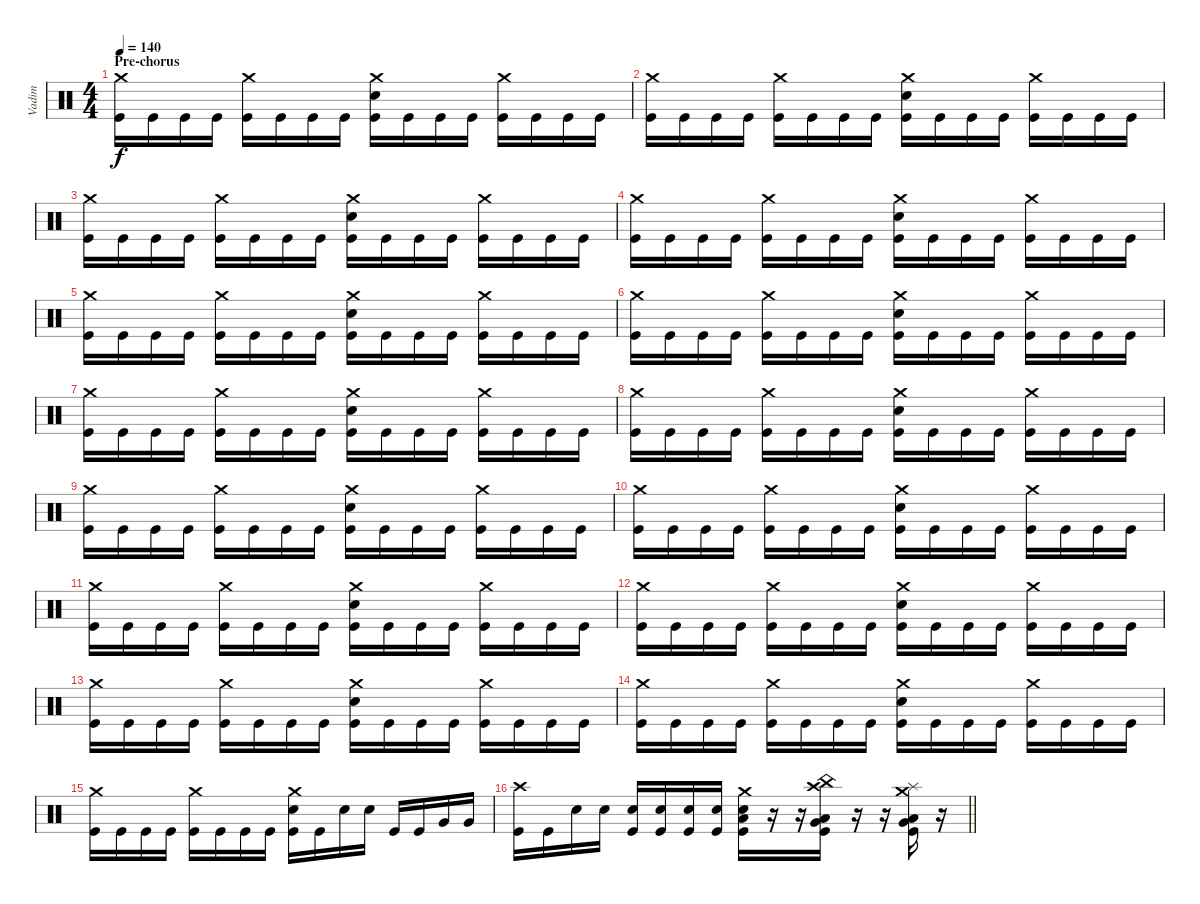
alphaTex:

\track ("Vadim" "Vadim") {instrument percussion}
\staff {score}
\articulation defaults
\ts (4 4)
\section ("" "Pre-chorus")
\tempo 140
\clef neutral
\ks c
("Crash medium (hit)" "Kick (hit)").16{dy f} "Kick (hit)".16 "Kick (hit)".16 "Kick (hit)".16 ("Crash medium (hit)" "Kick (hit)").16 "Kick (hit)".16 "Kick (hit)".16 "Kick (hit)".16 ("Crash medium (hit)" "Electric Snare (hit)" "Kick (hit)").16 "Kick (hit)".16 "Kick (hit)".16 "Kick (hit)".16 ("Crash medium (hit)" "Kick (hit)").16 "Kick (hit)".16 "Kick (hit)".16 "Kick (hit)".16 |
("Crash medium (hit)" "Kick (hit)").16 "Kick (hit)".16 "Kick (hit)".16 "Kick (hit)".16 ("Crash medium (hit)" "Kick (hit)").16 "Kick (hit)".16 "Kick (hit)".16 "Kick (hit)".16 ("Crash medium (hit)" "Electric Snare (hit)" "Kick (hit)").16 "Kick (hit)".16 "Kick (hit)".16 "Kick (hit)".16 ("Crash medium (hit)" "Kick (hit)").16 "Kick (hit)".16 "Kick (hit)".16 "Kick (hit)".16 |
("Crash medium (hit)" "Kick (hit)").16 "Kick (hit)".16 "Kick (hit)".16 "Kick (hit)".16 ("Crash medium (hit)" "Kick (hit)").16 "Kick (hit)".16 "Kick (hit)".16 "Kick (hit)".16 ("Crash medium (hit)" "Electric Snare (hit)" "Kick (hit)").16 "Kick (hit)".16 "Kick (hit)".16 "Kick (hit)".16 ("Crash medium (hit)" "Kick (hit)").16 "Kick (hit)".16 "Kick (hit)".16 "Kick (hit)".16 |
("Crash medium (hit)" "Kick (hit)").16 "Kick (hit)".16 "Kick (hit)".16 "Kick (hit)".16 ("Crash medium (hit)" "Kick (hit)").16 "Kick (hit)".16 "Kick (hit)".16 "Kick (hit)".16 ("Crash medium (hit)" "Electric Snare (hit)" "Kick (hit)").16 "Kick (hit)".16 "Kick (hit)".16 "Kick (hit)".16 ("Crash medium (hit)" "Kick (hit)").16 "Kick (hit)".16 "Kick (hit)".16 "Kick (hit)".16 |
("Crash medium (hit)" "Kick (hit)").16 "Kick (hit)".16 "Kick (hit)".16 "Kick (hit)".16 ("Crash medium (hit)" "Kick (hit)").16 "Kick (hit)".16 "Kick (hit)".16 "Kick (hit)".16 ("Crash medium (hit)" "Electric Snare (hit)" "Kick (hit)").16 "Kick (hit)".16 "Kick (hit)".16 "Kick (hit)".16 ("Crash medium (hit)" "Kick (hit)").16 "Kick (hit)".16 "Kick (hit)".16 "Kick (hit)".16 |
("Crash medium (hit)" "Kick (hit)").16 "Kick (hit)".16 "Kick (hit)".16 "Kick (hit)".16 ("Crash medium (hit)" "Kick (hit)").16 "Kick (hit)".16 "Kick (hit)".16 "Kick (hit)".16 ("Crash medium (hit)" "Electric Snare (hit)" "Kick (hit)").16 "Kick (hit)".16 "Kick (hit)".16 "Kick (hit)".16 ("Crash medium (hit)" "Kick (hit)").16 "Kick (hit)".16 "Kick (hit)".16 "Kick (hit)".16 |
("Crash medium (hit)" "Kick (hit)").16 "Kick (hit)".16 "Kick (hit)".16 "Kick (hit)".16 ("Crash medium (hit)" "Kick (hit)").16 "Kick (hit)".16 "Kick (hit)".16 "Kick (hit)".16 ("Crash medium (hit)" "Electric Snare (hit)" "Kick (hit)").16 "Kick (hit)".16 "Kick (hit)".16 "Kick (hit)".16 ("Crash medium (hit)" "Kick (hit)").16 "Kick (hit)".16 "Kick (hit)".16 "Kick (hit)".16 |
("Crash medium (hit)" "Kick (hit)").16 "Kick (hit)".16 "Kick (hit)".16 "Kick (hit)".16 ("Crash medium (hit)" "Kick (hit)").16 "Kick (hit)".16 "Kick (hit)".16 "Kick (hit)".16 ("Crash medium (hit)" "Electric Snare (hit)" "Kick (hit)").16 "Kick (hit)".16 "Kick (hit)".16 "Kick (hit)".16 ("Crash medium (hit)" "Kick (hit)").16 "Kick (hit)".16 "Kick (hit)".16 "Kick (hit)".16 |
("Crash medium (hit)" "Kick (hit)").16 "Kick (hit)".16 "Kick (hit)".16 "Kick (hit)".16 ("Crash medium (hit)" "Kick (hit)").16 "Kick (hit)".16 "Kick (hit)".16 "Kick (hit)".16 ("Crash medium (hit)" "Electric Snare (hit)" "Kick (hit)").16 "Kick (hit)".16 "Kick (hit)".16 "Kick (hit)".16 ("Crash medium (hit)" "Kick (hit)").16 "Kick (hit)".16 "Kick (hit)".16 "Kick (hit)".16 |
("Crash medium (hit)" "Kick (hit)").16 "Kick (hit)".16 "Kick (hit)".16 "Kick (hit)".16 ("Crash medium (hit)" "Kick (hit)").16 "Kick (hit)".16 "Kick (hit)".16 "Kick (hit)".16 ("Crash medium (hit)" "Electric Snare (hit)" "Kick (hit)").16 "Kick (hit)".16 "Kick (hit)".16 "Kick (hit)".16 ("Crash medium (hit)" "Kick (hit)").16 "Kick (hit)".16 "Kick (hit)".16 "Kick (hit)".16 |
("Crash medium (hit)" "Kick (hit)").16 "Kick (hit)".16 "Kick (hit)".16 "Kick (hit)".16 ("Crash medium (hit)" "Kick (hit)").16 "Kick (hit)".16 "Kick (hit)".16 "Kick (hit)".16 ("Crash medium (hit)" "Electric Snare (hit)" "Kick (hit)").16 "Kick (hit)".16 "Kick (hit)".16 "Kick (hit)".16 ("Crash medium (hit)" "Kick (hit)").16 "Kick (hit)".16 "Kick (hit)".16 "Kick (hit)".16 |
("Crash medium (hit)" "Kick (hit)").16 "Kick (hit)".16 "Kick (hit)".16 "Kick (hit)".16 ("Crash medium (hit)" "Kick (hit)").16 "Kick (hit)".16 "Kick (hit)".16 "Kick (hit)".16 ("Crash medium (hit)" "Electric Snare (hit)" "Kick (hit)").16 "Kick (hit)".16 "Kick (hit)".16 "Kick (hit)".16 ("Crash medium (hit)" "Kick (hit)").16 "Kick (hit)".16 "Kick (hit)".16 "Kick (hit)".16 |
("Crash medium (hit)" "Kick (hit)").16 "Kick (hit)".16 "Kick (hit)".16 "Kick (hit)".16 ("Crash medium (hit)" "Kick (hit)").16 "Kick (hit)".16 "Kick (hit)".16 "Kick (hit)".16 ("Crash medium (hit)" "Electric Snare (hit)" "Kick (hit)").16 "Kick (hit)".16 "Kick (hit)".16 "Kick (hit)".16 ("Crash medium (hit)" "Kick (hit)").16 "Kick (hit)".16 "Kick (hit)".16 "Kick (hit)".16 |
("Crash medium (hit)" "Kick (hit)").16 "Kick (hit)".16 "Kick (hit)".16 "Kick (hit)".16 ("Crash medium (hit)" "Kick (hit)").16 "Kick (hit)".16 "Kick (hit)".16 "Kick (hit)".16 ("Crash medium (hit)" "Electric Snare (hit)" "Kick (hit)").16 "Kick (hit)".16 "Kick (hit)".16 "Kick (hit)".16 ("Crash medium (hit)" "Kick (hit)").16 "Kick (hit)".16 "Kick (hit)".16 "Kick (hit)".16 |
("Crash medium (hit)" "Kick (hit)").16 "Kick (hit)".16 "Kick (hit)".16 "Kick (hit)".16 ("Crash medium (hit)" "Kick (hit)").16 "Kick (hit)".16 "Kick (hit)".16 "Kick (hit)".16 ("Crash medium (hit)" "Electric Snare (hit)" "Kick (hit)").16 "Kick (hit)".16 "Electric Snare (hit)".16 "Electric Snare (hit)".16 "Kick (hit)".16 "Kick (hit)".16 "Very Low Tom (hit)".16 "Very Low Tom (hit)".16 |
\barLineRight lightlight
("Crash high (hit)" "Kick (hit)").16 "Kick (hit)".16 "Electric Snare (hit)".16 "Electric Snare (hit)".16 ("Electric Snare (hit)" "Kick (hit)").16 ("Electric Snare (hit)" "Kick (hit)").16 ("Electric Snare (hit)" "Kick (hit)").16 ("Electric Snare (hit)" "Kick (hit)").16 ("Crash medium (hit)" "Low Tom (hit)" "Electric Snare (hit)" "Kick (hit)").16 r.16 r.16 ("Crash high (hit)" "China (hit)" "Very Low Tom (hit)" "Low Floor Tom (hit)" "Kick (hit)").16 r.16 r.16 ("Splash (hit)" "Crash medium (hit)" "Very Low Tom (hit)" "Low Floor Tom (hit)" "Kick (hit)").16 r.16
